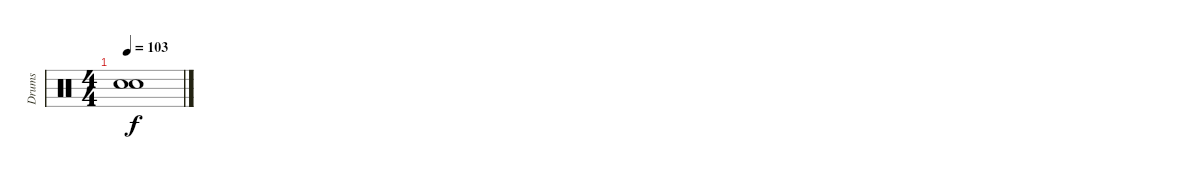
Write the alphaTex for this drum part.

\track ("Drums" "Drums") {instrument percussion}
\staff {score}
\articulation defaults
\ts (4 4)
\tempo 103
\clef neutral
\ks c
("Snare (hit)"{t} "Snare (hit)"{t}).1{dy f}
